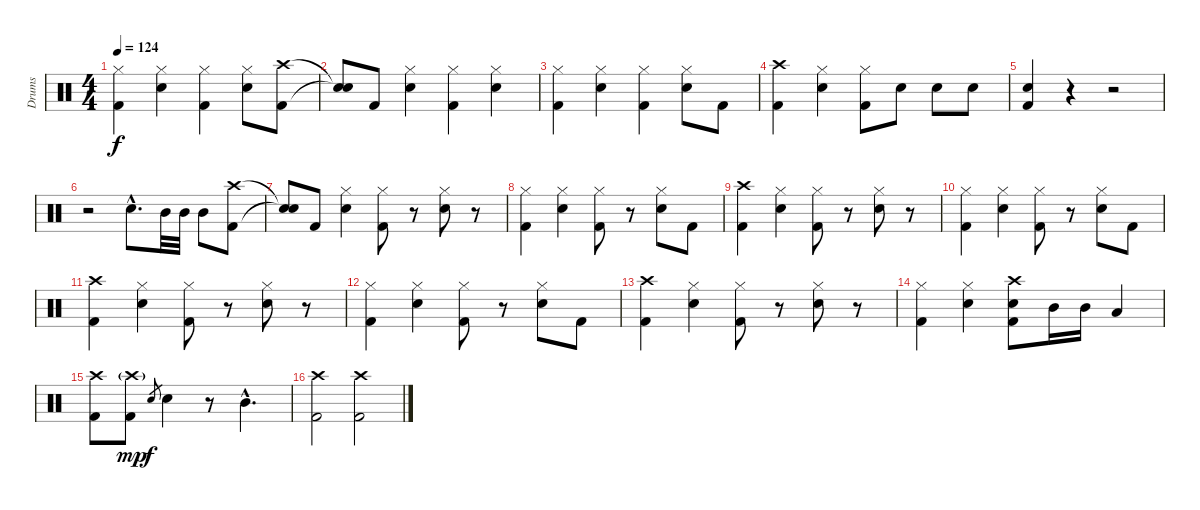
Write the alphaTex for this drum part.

\track ("Drums" "Drums") {instrument percussion}
\staff {score}
\articulation defaults
\ts (4 4)
\tempo 124
\clef neutral
\ks c
("Hi-Hat (closed)" "Kick (hit) 2").4{dy f} ("Hi-Hat (closed)" "Snare (hit) 2").4 ("Hi-Hat (closed)" "Kick (hit) 2").4 ("Hi-Hat (closed)" "Snare (hit) 2").8 ("Crash high (hit)" "Kick (hit) 2").8 |
("Snare (hit)"{t} "Snare (hit)"{t}).8 "Kick (hit) 2".8 ("Hi-Hat (closed)" "Snare (hit) 2").4 ("Hi-Hat (closed)" "Kick (hit) 2").4 ("Hi-Hat (closed)" "Snare (hit) 2").4 |
("Hi-Hat (closed)" "Kick (hit) 2").4 ("Hi-Hat (closed)" "Snare (hit) 2").4 ("Hi-Hat (closed)" "Kick (hit) 2").4 ("Hi-Hat (closed)" "Snare (hit) 2").8 "Kick (hit) 2".8 |
("Crash high (hit)" "Kick (hit) 2").4 ("Hi-Hat (closed)" "Snare (hit) 2").4 ("Hi-Hat (closed)" "Kick (hit) 2").8 "Snare (hit) 2".8 "Snare (hit) 2".8 "Snare (hit) 2".8 |
("Snare (hit) 2" "Kick (hit) 2").4 r.4 r.2 |
r.2 "Snare (hit) 2"{hac}.8{d} "Mid Tom (hit)".32 "Mid Tom (hit)".32 "Mid Tom (hit)".8 ("Crash high (hit)" "Kick (hit) 2").8 |
("Snare (hit)"{t} "Snare (hit)"{t}).8 "Kick (hit) 2".8 ("Hi-Hat (closed)" "Snare (hit) 2").4 ("Hi-Hat (closed)" "Kick (hit) 2").8 r.8 ("Hi-Hat (closed)" "Snare (hit) 2").8 r.8 |
("Hi-Hat (closed)" "Kick (hit) 2").4 ("Hi-Hat (closed)" "Snare (hit) 2").4 ("Hi-Hat (closed)" "Kick (hit) 2").8 r.8 ("Hi-Hat (closed)" "Snare (hit) 2").8 "Kick (hit) 2".8 |
("Crash high (hit)" "Kick (hit) 2").4 ("Hi-Hat (closed)" "Snare (hit) 2").4 ("Hi-Hat (closed)" "Kick (hit) 2").8 r.8 ("Hi-Hat (closed)" "Snare (hit) 2").8 r.8 |
("Hi-Hat (closed)" "Kick (hit) 2").4 ("Hi-Hat (closed)" "Snare (hit) 2").4 ("Hi-Hat (closed)" "Kick (hit) 2").8 r.8 ("Hi-Hat (closed)" "Snare (hit) 2").8 "Kick (hit) 2".8 |
("Crash high (hit)" "Kick (hit) 2").4 ("Hi-Hat (closed)" "Snare (hit) 2").4 ("Hi-Hat (closed)" "Kick (hit) 2").8 r.8 ("Hi-Hat (closed)" "Snare (hit) 2").8 r.8 |
("Hi-Hat (closed)" "Kick (hit) 2").4 ("Hi-Hat (closed)" "Snare (hit) 2").4 ("Hi-Hat (closed)" "Kick (hit) 2").8 r.8 ("Hi-Hat (closed)" "Snare (hit) 2").8 "Kick (hit) 2".8 |
("Crash high (hit)" "Kick (hit) 2").4 ("Hi-Hat (closed)" "Snare (hit) 2").4 ("Hi-Hat (closed)" "Kick (hit) 2").8 r.8 ("Hi-Hat (closed)" "Snare (hit) 2").8 r.8 |
("Hi-Hat (closed)" "Kick (hit) 2").4 ("Hi-Hat (closed)" "Snare (hit) 2").4 ("Crash high (hit)" "Snare (hit) 2" "Kick (hit) 2").8 "Mid Tom (hit)".16 "Mid Tom (hit)".16 "Low Floor Tom (hit)".4 |
("Crash high (hit)" "Kick (hit) 2").8 ("Crash high (hit)"{g} "Kick (hit) 2").8{dy mp} "Snare (hit) 2".8{gr dy f} "Snare (hit) 2".4 r.8 "Mid Tom (hit)"{hac}.4{d} |
("Crash high (hit)" "Kick (hit) 2").2 ("Crash high (hit)" "Kick (hit) 2").2
